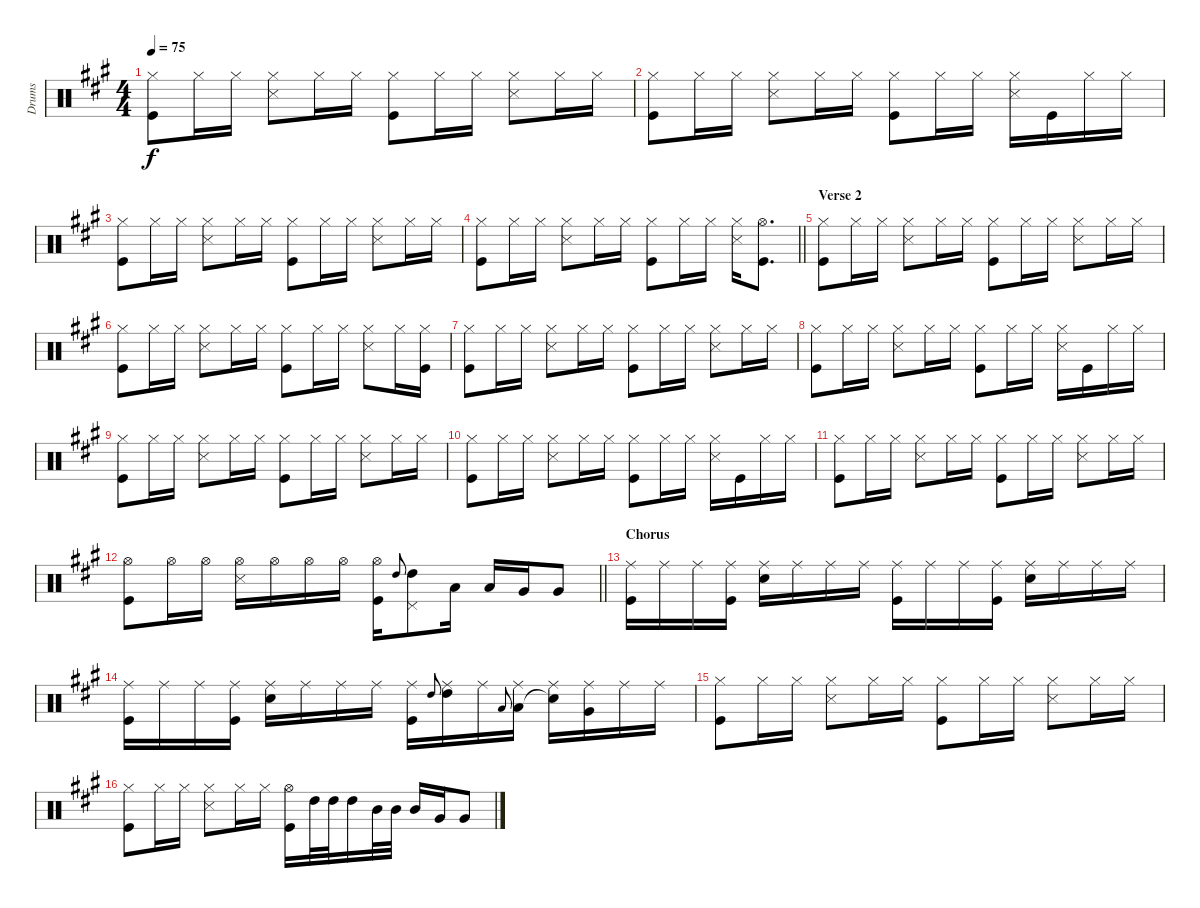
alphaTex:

\track ("Drums" "Drums") {instrument percussion}
\staff {score}
\articulation defaults
\ts (4 4)
\tempo 75
\clef neutral
\ks f#minor
("Hi-Hat (closed)" "Kick (hit)").8{dy f} "Hi-Hat (closed)".16 "Hi-Hat (closed)".16 ("Hi-Hat (closed)" "Snare (side stick) 3").8 "Hi-Hat (closed)".16 "Hi-Hat (closed)".16 ("Hi-Hat (closed)" "Kick (hit)").8 "Hi-Hat (closed)".16 "Hi-Hat (closed)".16 ("Hi-Hat (closed)" "Snare (side stick) 3").8 "Hi-Hat (closed)".16 "Hi-Hat (closed)".16 |
("Hi-Hat (closed)" "Kick (hit)").8 "Hi-Hat (closed)".16 "Hi-Hat (closed)".16 ("Hi-Hat (closed)" "Snare (side stick) 3").8 "Hi-Hat (closed)".16 "Hi-Hat (closed)".16 ("Hi-Hat (closed)" "Kick (hit)").8 "Hi-Hat (closed)".16 "Hi-Hat (closed)".16 ("Hi-Hat (closed)" "Snare (side stick) 3").16 "Kick (hit)".16 "Hi-Hat (closed)".16 "Hi-Hat (closed)".16 |
("Hi-Hat (closed)" "Kick (hit)").8 "Hi-Hat (closed)".16 "Hi-Hat (closed)".16 ("Hi-Hat (closed)" "Snare (side stick) 3").8 "Hi-Hat (closed)".16 "Hi-Hat (closed)".16 ("Hi-Hat (closed)" "Kick (hit)").8 "Hi-Hat (closed)".16 "Hi-Hat (closed)".16 ("Hi-Hat (closed)" "Snare (side stick) 3").8 "Hi-Hat (closed)".16 "Hi-Hat (closed)".16 |
\barLineRight lightlight
("Hi-Hat (closed)" "Kick (hit)").8 "Hi-Hat (closed)".16 "Hi-Hat (closed)".16 ("Hi-Hat (closed)" "Snare (side stick) 3").8 "Hi-Hat (closed)".16 "Hi-Hat (closed)".16 ("Hi-Hat (closed)" "Kick (hit)").8 "Hi-Hat (closed)".16 "Hi-Hat (closed)".16 ("Hi-Hat (closed)" "Snare (side stick) 3").16 ("Hi-Hat (open)" "Kick (hit)").8{d} |
\section ("" "Verse 2")
("Hi-Hat (closed)" "Kick (hit)").8 "Hi-Hat (closed)".16 "Hi-Hat (closed)".16 ("Hi-Hat (closed)" "Snare (side stick) 3").8 "Hi-Hat (closed)".16 "Hi-Hat (closed)".16 ("Hi-Hat (closed)" "Kick (hit)").8 "Hi-Hat (closed)".16 "Hi-Hat (closed)".16 ("Hi-Hat (closed)" "Snare (side stick) 3").8 "Hi-Hat (closed)".16 "Hi-Hat (closed)".16 |
("Hi-Hat (closed)" "Kick (hit)").8 "Hi-Hat (closed)".16 "Hi-Hat (closed)".16 ("Hi-Hat (closed)" "Snare (side stick) 3").8 "Hi-Hat (closed)".16 "Hi-Hat (closed)".16 ("Hi-Hat (closed)" "Kick (hit)").8 "Hi-Hat (closed)".16 "Hi-Hat (closed)".16 ("Hi-Hat (closed)" "Snare (side stick) 3").8 "Hi-Hat (closed)".16 ("Hi-Hat (closed)" "Kick (hit)").16 |
("Hi-Hat (closed)" "Kick (hit)").8 "Hi-Hat (closed)".16 "Hi-Hat (closed)".16 ("Hi-Hat (closed)" "Snare (side stick) 3").8 "Hi-Hat (closed)".16 "Hi-Hat (closed)".16 ("Hi-Hat (closed)" "Kick (hit)").8 "Hi-Hat (closed)".16 "Hi-Hat (closed)".16 ("Hi-Hat (closed)" "Snare (side stick) 3").8 "Hi-Hat (closed)".16 "Hi-Hat (closed)".16 |
("Hi-Hat (closed)" "Kick (hit)").8 "Hi-Hat (closed)".16 "Hi-Hat (closed)".16 ("Hi-Hat (closed)" "Snare (side stick) 3").8 "Hi-Hat (closed)".16 "Hi-Hat (closed)".16 ("Hi-Hat (closed)" "Kick (hit)").8 "Hi-Hat (closed)".16 "Hi-Hat (closed)".16 ("Hi-Hat (closed)" "Snare (side stick) 3").16 "Kick (hit)".16 "Hi-Hat (closed)".16 "Hi-Hat (closed)".16 |
("Hi-Hat (closed)" "Kick (hit)").8 "Hi-Hat (closed)".16 "Hi-Hat (closed)".16 ("Hi-Hat (closed)" "Snare (side stick) 3").8 "Hi-Hat (closed)".16 "Hi-Hat (closed)".16 ("Hi-Hat (closed)" "Kick (hit)").8 "Hi-Hat (closed)".16 "Hi-Hat (closed)".16 ("Hi-Hat (closed)" "Snare (side stick) 3").8 "Hi-Hat (closed)".16 "Hi-Hat (closed)".16 |
("Hi-Hat (closed)" "Kick (hit)").8 "Hi-Hat (closed)".16 "Hi-Hat (closed)".16 ("Hi-Hat (closed)" "Snare (side stick) 3").8 "Hi-Hat (closed)".16 "Hi-Hat (closed)".16 ("Hi-Hat (closed)" "Kick (hit)").8 "Hi-Hat (closed)".16 "Hi-Hat (closed)".16 ("Hi-Hat (closed)" "Snare (side stick) 3").16 "Kick (hit)".16 "Hi-Hat (closed)".16 "Hi-Hat (closed)".16 |
("Hi-Hat (closed)" "Kick (hit)").8 "Hi-Hat (closed)".16 "Hi-Hat (closed)".16 ("Hi-Hat (closed)" "Snare (side stick) 3").8 "Hi-Hat (closed)".16 "Hi-Hat (closed)".16 ("Hi-Hat (closed)" "Kick (hit)").8 "Hi-Hat (closed)".16 "Hi-Hat (closed)".16 ("Hi-Hat (closed)" "Snare (side stick) 3").8 "Hi-Hat (closed)".16 "Hi-Hat (closed)".16 |
\barLineRight lightlight
("Hi-Hat (open)" "Kick (hit)").8 "Hi-Hat (open)".16 "Hi-Hat (open)".16 ("Hi-Hat (open)" "Snare (side stick) 3").16 "Hi-Hat (open)".16 "Hi-Hat (open)".16 "Hi-Hat (open)".16 ("Hi-Hat (open)" "Kick (hit)").16 "High Tom (hit)".8{gr onbeat} ("High Tom (hit)" "Pedal Hi-Hat (hit)").8 "Low Tom (hit)".16 "Low Tom (hit)".16 "Very Low Tom (hit)".16 "Very Low Tom (hit)".8 |
\section ("" "Chorus")
("Ride (middle)" "Kick (hit)").16 "Ride (middle)".16 "Ride (middle)".16 ("Ride (middle)" "Kick (hit)").16 ("Ride (middle)" "Electric Snare (hit)").16 "Ride (middle)".16 "Ride (middle)".16 "Ride (middle)".16 ("Ride (middle)" "Kick (hit)").16 "Ride (middle)".16 "Ride (middle)".16 ("Ride (middle)" "Kick (hit)").16 ("Ride (middle)" "Electric Snare (hit)").16 "Ride (middle)".16 "Ride (middle)".16 "Ride (middle)".16 |
("Ride (middle)" "Kick (hit)").16 "Ride (middle)".16 "Ride (middle)".16 ("Ride (middle)" "Kick (hit)").16 ("Ride (middle)" "Electric Snare (hit)").16 "Ride (middle)".16 "Ride (middle)".16 "Ride (middle)".16 ("Ride (middle)" "Kick (hit)").16 "High Tom (hit)".8{gr onbeat} ("Ride (middle)" "High Tom (hit)").16 "Ride (middle)".16 "Low Tom (hit)".8{gr onbeat} ("Ride (middle)" "Low Tom (hit)").16 ("Ride (middle)" "Snare (hit)"{t}).16 ("Ride (middle)" "Very Low Tom (hit)").16 "Ride (middle)".16 "Ride (middle)".16 |
("Hi-Hat (closed)" "Kick (hit)").8 "Hi-Hat (closed)".16 "Hi-Hat (closed)".16 ("Hi-Hat (closed)" "Snare (side stick) 3").8 "Hi-Hat (closed)".16 "Hi-Hat (closed)".16 ("Hi-Hat (closed)" "Kick (hit)").8 "Hi-Hat (closed)".16 "Hi-Hat (closed)".16 ("Hi-Hat (closed)" "Snare (side stick) 3").8 "Hi-Hat (closed)".16 "Hi-Hat (closed)".16 |
("Hi-Hat (closed)" "Kick (hit)").8 "Hi-Hat (closed)".16 "Hi-Hat (closed)".16 ("Hi-Hat (closed)" "Snare (side stick) 3").8 "Hi-Hat (closed)".16 "Hi-Hat (closed)".16 ("Hi-Hat (open)" "Kick (hit)").16 "High Tom (hit)".32 "High Tom (hit)".32 "High Tom (hit)".16 "Mid Tom (hit)".32 "Mid Tom (hit)".32 "Mid Tom (hit)".16 "Very Low Tom (hit)".16 "Very Low Tom (hit)".8
